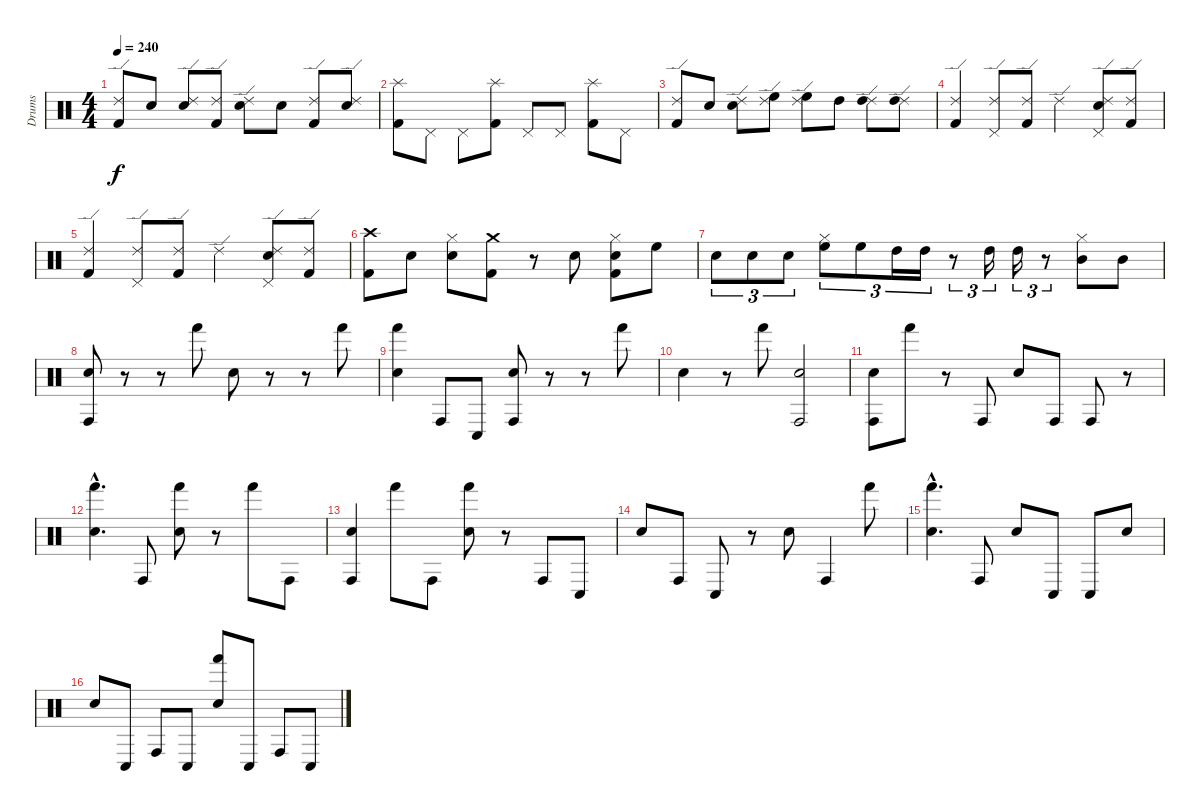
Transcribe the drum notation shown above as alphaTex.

\track ("Drums" "Drums") {instrument percussion}
\staff {score}
\articulation defaults
\ts (4 4)
\tempo 240
\clef neutral
\ks c
("Ride (edge) 2" "Kick (hit) 2").8{dy f} "Snare (hit) 2".8 ("Ride (edge) 2" "Snare (hit) 2").8 ("Ride (edge) 2" "Kick (hit) 2").8 ("Ride (edge) 2" "Snare (hit) 2").8 "Snare (hit) 2".8 ("Ride (edge) 2" "Kick (hit) 2").8 ("Ride (edge) 2" "Snare (hit) 2").8 |
("Splash (hit)" "Kick (hit) 2").8 "Pedal Hi-Hat (hit)".8 "Pedal Hi-Hat (hit)".8 ("Splash (hit)" "Kick (hit) 2").8 "Pedal Hi-Hat (hit)".8 "Pedal Hi-Hat (hit)".8 ("Splash (hit)" "Kick (hit) 2").8 "Pedal Hi-Hat (hit)".8 |
("Ride (edge) 2" "Kick (hit) 2").8 "Snare (hit) 2".8 ("Ride (edge) 2" "Snare (hit) 2").8 ("Ride (edge) 2" "High Floor Tom (hit)").8 ("Ride (edge) 2" "High Floor Tom (hit)").8 "High Tom (hit)".8 ("Ride (edge) 2" "High Tom (hit)").8 ("Ride (edge) 2" "High Tom (hit)").8 |
("Ride (edge) 2" "Kick (hit) 2").4 ("Ride (edge) 2" "Pedal Hi-Hat (hit)").8 ("Ride (edge) 2" "Kick (hit) 2").8 "Ride (edge) 2".4 ("Ride (edge) 2" "Pedal Hi-Hat (hit)" "Snare (hit) 2").8 ("Ride (edge) 2" "Kick (hit) 2").8 |
("Ride (edge) 2" "Kick (hit) 2").4 ("Ride (edge) 2" "Pedal Hi-Hat (hit)").8 ("Ride (edge) 2" "Kick (hit) 2").8 "Ride (edge) 2".4 ("Ride (edge) 2" "Pedal Hi-Hat (hit)" "Snare (hit) 2").8 ("Ride (edge) 2" "Kick (hit) 2").8 |
("Crash high (hit)" "Kick (hit) 2").8 "Snare (hit) 2".8 ("Hi-Hat (closed)" "Snare (hit) 2").8 ("Crash medium (hit)" "Kick (hit) 2").8 r.8 "Snare (hit) 2".8 ("Hi-Hat (closed)" "Snare (hit) 2" "Kick (hit) 2").8 "High Floor Tom (hit)".8 |
"Snare (hit) 2".8{tu (3 2)} "Snare (hit) 2".8{tu (3 2)} "Snare (hit) 2".8{tu (3 2)} ("Hi-Hat (closed)" "High Floor Tom (hit)").8{tu (3 2)} "High Floor Tom (hit)".8{tu (3 2)} "High Tom (hit)".16{tu (3 2)} "High Tom (hit)".16{tu (3 2)} r.8{tu (3 2)} "High Tom (hit)".16{tu (3 2)} "High Tom (hit)".16{tu (3 2)} r.8{tu (3 2)} ("Hi-Hat (closed)" "Mid Tom (hit)").8 "Mid Tom (hit)".8 |
("Hand Clap (hit)" "Conga high (hit)").8 r.8 r.8 "Hand (hit)".8 "Hand Clap (hit)".8 r.8 r.8 "Hand (hit)".8 |
("Hand Clap (hit)" "Hand (hit)").4 "Conga high (hit)".8 "Conga low (hit)".8 ("Hand Clap (hit)" "Conga high (hit)").8 r.8 r.8 "Hand (hit)".8 |
"Hand Clap (hit)".4 r.8 "Hand (hit)".8 ("Hand Clap (hit)" "Conga high (hit)").2 |
("Hand Clap (hit)" "Conga high (hit)").8 "Hand (hit)".8 r.8 "Conga high (hit)".8 "Hand Clap (hit)".8 "Conga high (hit)".8 "Conga high (hit)".8 r.8 |
("Hand Clap (hit)"{hac} "Hand (hit)"{hac}).4{d} "Conga high (hit)".8 ("Hand Clap (hit)" "Hand (hit)").8 r.8 "Hand (hit)".8 "Conga high (hit)".8 |
("Hand Clap (hit)" "Conga high (hit)").4 "Hand (hit)".8 "Conga high (hit)".8 ("Hand Clap (hit)" "Hand (hit)").8 r.8 "Conga high (hit)".8 "Conga low (hit)".8 |
"Hand Clap (hit)".8 "Conga high (hit)".8 "Conga low (hit)".8 r.8 "Hand Clap (hit)".8 "Conga high (hit)".4 "Hand (hit)".8 |
("Hand Clap (hit)"{hac} "Hand (hit)"{hac}).4{d} "Conga high (hit)".8 "Hand Clap (hit)".8 "Conga low (hit)".8 "Conga low (hit)".8 "Hand Clap (hit)".8 |
"Hand Clap (hit)".8 "Conga low (hit)".8 "Conga high (hit)".8 "Conga low (hit)".8 ("Hand Clap (hit)" "Hand (hit)").8 "Conga low (hit)".8 "Conga high (hit)".8 "Conga low (hit)".8
